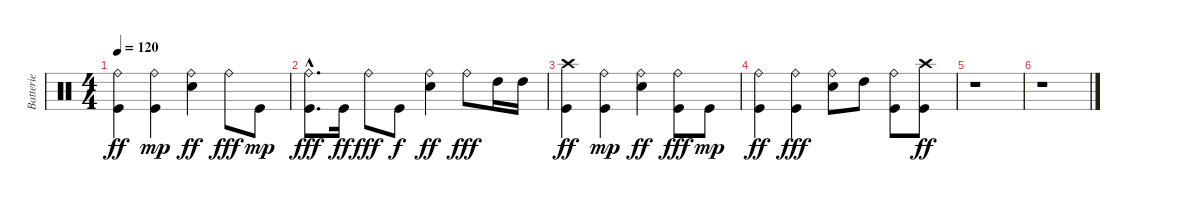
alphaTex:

\track ("Batterie" "Batterie") {instrument percussion}
\staff {score}
\articulation defaults
\ts (4 4)
\tempo 120
\clef neutral
\ks c
("Ride (bell)" "Kick (hit)").4{dy ff} ("Ride (bell)" "Kick (hit)").4{dy mp} ("Ride (bell)" "Electric Snare (hit)").4{dy ff} "Ride (bell)".8{dy fff} "Kick (hit)".8{dy mp} |
("Kick (hit)"{hac} "Ride (bell)"{hac}).8{d dy fff} "Kick (hit)".16{dy ff} "Ride (bell)".8{dy fff} "Kick (hit)".8{dy f} ("Electric Snare (hit)" "Ride (bell)").4{dy ff} "Ride (bell)".8{dy fff} "High Tom (hit)".16 "High Tom (hit)".16 |
("Crash high (hit)" "Kick (hit)").4{dy ff} ("Ride (bell)" "Kick (hit)").4{dy mp} ("Ride (bell)" "Electric Snare (hit)").4{dy ff} ("Kick (hit)" "Ride (bell)").8{dy fff} "Kick (hit)".8{dy mp} |
("Ride (bell)" "Kick (hit)").4{dy ff} ("Kick (hit)" "Ride (bell)").4{dy fff} ("Electric Snare (hit)" "Ride (bell)").8 "High Tom (hit)".8 ("Kick (hit)" "Ride (bell)").8 ("Crash high (hit)" "Kick (hit)").8{dy ff} |
r.1 |
r.1
